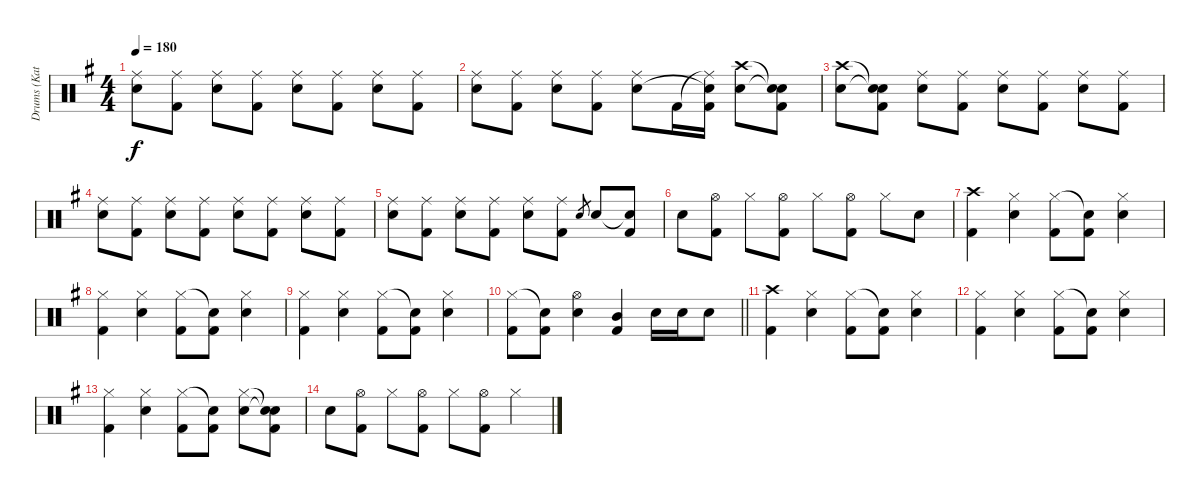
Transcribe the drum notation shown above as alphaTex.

\track ("Drums (Katsuji)" "Drums (Kat") {instrument percussion}
\staff {score}
\articulation defaults
\ts (4 4)
\tempo 180
\clef neutral
\ks g
("Ride (middle)" "Snare (hit) 2").8{dy f} ("Ride (middle)" "Kick (hit) 2").8 ("Ride (middle)" "Snare (hit) 2").8 ("Ride (middle)" "Kick (hit) 2").8 ("Ride (middle)" "Snare (hit) 2").8 ("Ride (middle)" "Kick (hit) 2").8 ("Ride (middle)" "Snare (hit) 2").8 ("Ride (middle)" "Kick (hit) 2").8 |
("Ride (middle)" "Snare (hit) 2").8 ("Ride (middle)" "Kick (hit) 2").8 ("Ride (middle)" "Snare (hit) 2").8 ("Ride (middle)" "Kick (hit) 2").8 ("Ride (middle)" "Snare (hit) 2").8 "Kick (hit) 2".16 ("Ride (middle)"{t} "Snare (hit)"{t} "Kick (hit) 2").16 ("Crash high (hit)" "Snare (hit) 2").8 ("Snare (hit)"{t} "Snare (hit)"{t} "Kick (hit) 2").8 |
("Crash high (hit)" "Snare (hit) 2").8 ("Snare (hit)"{t} "Snare (hit)"{t} "Kick (hit) 2").8 ("Ride (middle)" "Snare (hit) 2").8 ("Ride (middle)" "Kick (hit) 2").8 ("Ride (middle)" "Snare (hit) 2").8 ("Ride (middle)" "Kick (hit) 2").8 ("Ride (middle)" "Snare (hit) 2").8 ("Ride (middle)" "Kick (hit) 2").8 |
("Ride (middle)" "Snare (hit) 2").8 ("Ride (middle)" "Kick (hit) 2").8 ("Ride (middle)" "Snare (hit) 2").8 ("Ride (middle)" "Kick (hit) 2").8 ("Ride (middle)" "Snare (hit) 2").8 ("Ride (middle)" "Kick (hit) 2").8 ("Ride (middle)" "Snare (hit) 2").8 ("Ride (middle)" "Kick (hit) 2").8 |
("Ride (middle)" "Snare (hit) 2").8 ("Ride (middle)" "Kick (hit) 2").8 ("Ride (middle)" "Snare (hit) 2").8 ("Ride (middle)" "Kick (hit) 2").8 ("Ride (middle)" "Snare (hit) 2").8 ("Ride (middle)" "Kick (hit) 2").8 "Snare (hit) 2".8{gr} "Snare (hit) 2".8 ("Snare (hit)"{t} "Kick (hit) 2").8 |
"Snare (hit) 2".8 ("Hi-Hat (open)" "Kick (hit) 2").8 "Hi-Hat (closed)".8 ("Hi-Hat (open)" "Kick (hit) 2").8 "Hi-Hat (closed)".8 ("Hi-Hat (open)" "Kick (hit) 2").8 "Hi-Hat (closed)".8 "Snare (hit) 2".8 |
("Crash high (hit)" "Kick (hit) 2").4 ("Hi-Hat (closed)" "Snare (hit) 2").4 ("Hi-Hat (closed)" "Kick (hit) 2").8 ("Snare (hit)"{t} "Kick (hit) 2").8 ("Hi-Hat (closed)" "Snare (hit) 2").4 |
("Hi-Hat (closed)" "Kick (hit) 2").4 ("Hi-Hat (closed)" "Snare (hit) 2").4 ("Hi-Hat (closed)" "Kick (hit) 2").8 ("Snare (hit)"{t} "Kick (hit) 2").8 ("Hi-Hat (closed)" "Snare (hit) 2").4 |
("Hi-Hat (closed)" "Kick (hit) 2").4 ("Hi-Hat (closed)" "Snare (hit) 2").4 ("Hi-Hat (closed)" "Kick (hit) 2").8 ("Snare (hit)"{t} "Kick (hit) 2").8 ("Hi-Hat (closed)" "Snare (hit) 2").4 |
\barLineRight lightlight
("Hi-Hat (closed)" "Kick (hit) 2").8 ("Snare (hit)"{t} "Kick (hit) 2").8 ("Hi-Hat (open)" "Snare (hit) 2").4 ("Mid Tom (hit)" "Kick (hit) 2").4 "Snare (hit) 2".16 "Snare (hit) 2".16 "Snare (hit) 2".8 |
("Crash high (hit)" "Kick (hit) 2").4 ("Hi-Hat (closed)" "Snare (hit) 2").4 ("Hi-Hat (closed)" "Kick (hit) 2").8 ("Snare (hit)"{t} "Kick (hit) 2").8 ("Hi-Hat (closed)" "Snare (hit) 2").4 |
("Hi-Hat (closed)" "Kick (hit) 2").4 ("Hi-Hat (closed)" "Snare (hit) 2").4 ("Hi-Hat (closed)" "Kick (hit) 2").8 ("Snare (hit)"{t} "Kick (hit) 2").8 ("Hi-Hat (closed)" "Snare (hit) 2").4 |
("Hi-Hat (closed)" "Kick (hit) 2").4 ("Hi-Hat (closed)" "Snare (hit) 2").4 ("Hi-Hat (closed)" "Kick (hit) 2").8 ("Snare (hit)"{t} "Kick (hit) 2").8 ("Hi-Hat (closed)" "Snare (hit) 2").8 ("Snare (hit)"{t} "Snare (hit)"{t} "Kick (hit) 2").8 |
"Snare (hit) 2".8 ("Hi-Hat (open)" "Kick (hit) 2").8 "Hi-Hat (closed)".8 ("Hi-Hat (open)" "Kick (hit) 2").8 "Hi-Hat (closed)".8 ("Hi-Hat (open)" "Kick (hit) 2").8 "Hi-Hat (closed)".4
